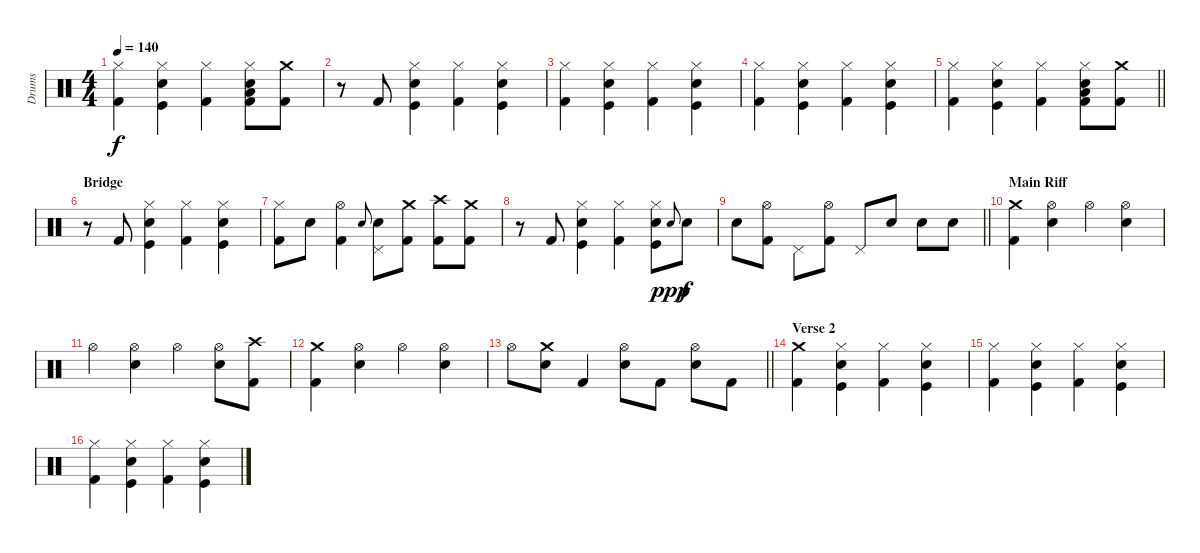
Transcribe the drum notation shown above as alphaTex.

\track ("Drums" "Drums") {instrument percussion}
\staff {score}
\articulation defaults
\ts (4 4)
\tempo 140
\clef neutral
\ks c
("Hi-Hat (closed)" "Kick (hit) 2").4{dy f} ("Hi-Hat (closed)" "Electric Snare (hit)" "Kick (hit)").4 ("Hi-Hat (closed)" "Kick (hit) 2").4 ("Hi-Hat (closed)" "Kick (hit) 2" "Low Floor Tom (hit)" "Electric Snare (hit)").8 ("Crash medium (hit)" "Kick (hit) 2").8 |
r.8 "Kick (hit) 2".8 ("Hi-Hat (closed)" "Electric Snare (hit)" "Kick (hit)").4 ("Hi-Hat (closed)" "Kick (hit) 2").4 ("Hi-Hat (closed)" "Electric Snare (hit)" "Kick (hit)").4 |
("Hi-Hat (closed)" "Kick (hit) 2").4 ("Hi-Hat (closed)" "Electric Snare (hit)" "Kick (hit)").4 ("Hi-Hat (closed)" "Kick (hit) 2").4 ("Hi-Hat (closed)" "Electric Snare (hit)" "Kick (hit)").4 |
("Hi-Hat (closed)" "Kick (hit) 2").4 ("Hi-Hat (closed)" "Electric Snare (hit)" "Kick (hit)").4 ("Hi-Hat (closed)" "Kick (hit) 2").4 ("Hi-Hat (closed)" "Electric Snare (hit)" "Kick (hit)").4 |
\barLineRight lightlight
("Hi-Hat (closed)" "Kick (hit) 2").4 ("Hi-Hat (closed)" "Electric Snare (hit)" "Kick (hit)").4 ("Hi-Hat (closed)" "Kick (hit) 2").4 ("Hi-Hat (closed)" "Kick (hit) 2" "Low Floor Tom (hit)" "Electric Snare (hit)").8 ("Crash medium (hit)" "Kick (hit) 2").8 |
\section ("" "Bridge")
r.8 "Kick (hit) 2".8 ("Hi-Hat (closed)" "Electric Snare (hit)" "Kick (hit)").4 ("Hi-Hat (closed)" "Kick (hit) 2").4 ("Hi-Hat (closed)" "Electric Snare (hit)" "Kick (hit)").4 |
("Hi-Hat (closed)" "Kick (hit) 2").8 "Electric Snare (hit)".8 ("Hi-Hat (open)" "Kick (hit) 2").4 "Electric Snare (hit)".8{gr onbeat} ("Pedal Hi-Hat (hit)" "Electric Snare (hit)").8 ("Crash medium (hit)" "Kick (hit) 2").8 ("Crash high (hit)" "Kick (hit) 2").8 ("Crash medium (hit)" "Kick (hit) 2").8 |
r.8 "Kick (hit) 2".8 ("Hi-Hat (closed)" "Electric Snare (hit)" "Kick (hit)").4 ("Hi-Hat (closed)" "Kick (hit) 2").4 ("Hi-Hat (closed)" "Electric Snare (hit)" "Kick (hit)").8 "Electric Snare (hit)"{h}.8{gr onbeat dy ppp} "Electric Snare (hit)".8{dy f} |
\barLineRight lightlight "Electric Snare (hit)".8
("Hi-Hat (open)" "Kick (hit) 2").8 "Pedal Hi-Hat (hit)".8 ("Hi-Hat (open)" "Kick (hit) 2").8 "Pedal Hi-Hat (hit)".8 "Electric Snare (hit)".8 "Electric Snare (hit)".8 "Electric Snare (hit)".8 |
\section ("" "Main Riff")
("Crash medium (hit)" "Kick (hit) 2").4 ("Hi-Hat (open)" "Electric Snare (hit)").4 "Hi-Hat (open)".4 ("Hi-Hat (open)" "Electric Snare (hit)").4 |
"Hi-Hat (open)".4 ("Hi-Hat (open)" "Electric Snare (hit)").4 "Hi-Hat (open)".4 ("Hi-Hat (open)" "Electric Snare (hit)").8 ("Crash high (hit)" "Kick (hit) 2").8 |
("Crash medium (hit)" "Kick (hit) 2").4 ("Hi-Hat (open)" "Electric Snare (hit)").4 "Hi-Hat (open)".4 ("Hi-Hat (open)" "Electric Snare (hit)").4 |
\barLineRight lightlight "Hi-Hat (open)".8
("Crash medium (hit)" "Electric Snare (hit)").8 "Kick (hit) 2".4 ("Hi-Hat (open)" "Electric Snare (hit)").8 "Kick (hit) 2".8 ("Hi-Hat (open)" "Electric Snare (hit)").8 "Kick (hit) 2".8 |
\section ("" "Verse 2")
("Crash medium (hit)" "Kick (hit) 2").4 ("Hi-Hat (closed)" "Electric Snare (hit)" "Kick (hit)").4 ("Hi-Hat (closed)" "Kick (hit) 2").4 ("Hi-Hat (closed)" "Electric Snare (hit)" "Kick (hit)").4 |
("Hi-Hat (closed)" "Kick (hit) 2").4 ("Hi-Hat (closed)" "Electric Snare (hit)" "Kick (hit)").4 ("Hi-Hat (closed)" "Kick (hit) 2").4 ("Hi-Hat (closed)" "Electric Snare (hit)" "Kick (hit)").4 |
("Hi-Hat (closed)" "Kick (hit) 2").4 ("Hi-Hat (closed)" "Electric Snare (hit)" "Kick (hit)").4 ("Hi-Hat (closed)" "Kick (hit) 2").4 ("Hi-Hat (closed)" "Electric Snare (hit)" "Kick (hit)").4
